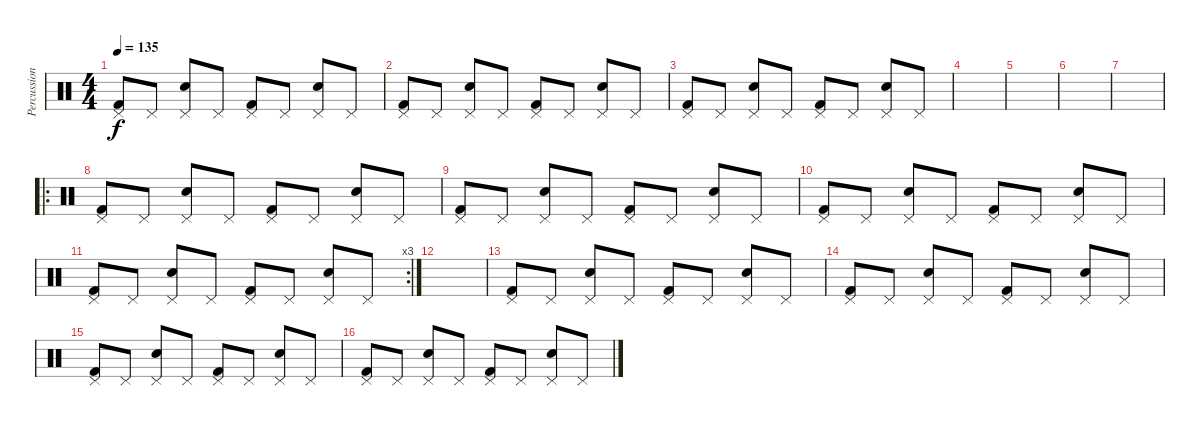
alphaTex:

\track ("Percussions" "Percussion") {instrument percussion}
\staff {score}
\articulation defaults
\ts (4 4)
\tempo 135
\clef neutral
\ks c
("Pedal Hi-Hat (hit)" "Kick (hit) 2").8{dy f} "Pedal Hi-Hat (hit)".8 ("Pedal Hi-Hat (hit)" "Electric Snare (hit)").8 "Pedal Hi-Hat (hit)".8 ("Pedal Hi-Hat (hit)" "Kick (hit) 2").8 "Pedal Hi-Hat (hit)".8 ("Pedal Hi-Hat (hit)" "Electric Snare (hit)").8 "Pedal Hi-Hat (hit)".8 |
("Pedal Hi-Hat (hit)" "Kick (hit) 2").8 "Pedal Hi-Hat (hit)".8 ("Pedal Hi-Hat (hit)" "Electric Snare (hit)").8 "Pedal Hi-Hat (hit)".8 ("Pedal Hi-Hat (hit)" "Kick (hit) 2").8 "Pedal Hi-Hat (hit)".8 ("Pedal Hi-Hat (hit)" "Electric Snare (hit)").8 "Pedal Hi-Hat (hit)".8 |
("Pedal Hi-Hat (hit)" "Kick (hit) 2").8 "Pedal Hi-Hat (hit)".8 ("Pedal Hi-Hat (hit)" "Electric Snare (hit)").8 "Pedal Hi-Hat (hit)".8 ("Pedal Hi-Hat (hit)" "Kick (hit) 2").8 "Pedal Hi-Hat (hit)".8 ("Pedal Hi-Hat (hit)" "Electric Snare (hit)").8 "Pedal Hi-Hat (hit)".8 |
|
|
|
|
\ro
("Pedal Hi-Hat (hit)" "Kick (hit) 2").8 "Pedal Hi-Hat (hit)".8 ("Pedal Hi-Hat (hit)" "Electric Snare (hit)").8 "Pedal Hi-Hat (hit)".8 ("Pedal Hi-Hat (hit)" "Kick (hit) 2").8 "Pedal Hi-Hat (hit)".8 ("Pedal Hi-Hat (hit)" "Electric Snare (hit)").8 "Pedal Hi-Hat (hit)".8 |
("Pedal Hi-Hat (hit)" "Kick (hit) 2").8 "Pedal Hi-Hat (hit)".8 ("Pedal Hi-Hat (hit)" "Electric Snare (hit)").8 "Pedal Hi-Hat (hit)".8 ("Pedal Hi-Hat (hit)" "Kick (hit) 2").8 "Pedal Hi-Hat (hit)".8 ("Pedal Hi-Hat (hit)" "Electric Snare (hit)").8 "Pedal Hi-Hat (hit)".8 |
("Pedal Hi-Hat (hit)" "Kick (hit) 2").8 "Pedal Hi-Hat (hit)".8 ("Pedal Hi-Hat (hit)" "Electric Snare (hit)").8 "Pedal Hi-Hat (hit)".8 ("Pedal Hi-Hat (hit)" "Kick (hit) 2").8 "Pedal Hi-Hat (hit)".8 ("Pedal Hi-Hat (hit)" "Electric Snare (hit)").8 "Pedal Hi-Hat (hit)".8 |
\rc 3
("Pedal Hi-Hat (hit)" "Kick (hit) 2").8 "Pedal Hi-Hat (hit)".8 ("Pedal Hi-Hat (hit)" "Electric Snare (hit)").8 "Pedal Hi-Hat (hit)".8 ("Pedal Hi-Hat (hit)" "Kick (hit) 2").8 "Pedal Hi-Hat (hit)".8 ("Pedal Hi-Hat (hit)" "Electric Snare (hit)").8 "Pedal Hi-Hat (hit)".8 |
|
("Pedal Hi-Hat (hit)" "Kick (hit) 2").8 "Pedal Hi-Hat (hit)".8 ("Pedal Hi-Hat (hit)" "Electric Snare (hit)").8 "Pedal Hi-Hat (hit)".8 ("Pedal Hi-Hat (hit)" "Kick (hit) 2").8 "Pedal Hi-Hat (hit)".8 ("Pedal Hi-Hat (hit)" "Electric Snare (hit)").8 "Pedal Hi-Hat (hit)".8 |
("Pedal Hi-Hat (hit)" "Kick (hit) 2").8 "Pedal Hi-Hat (hit)".8 ("Pedal Hi-Hat (hit)" "Electric Snare (hit)").8 "Pedal Hi-Hat (hit)".8 ("Pedal Hi-Hat (hit)" "Kick (hit) 2").8 "Pedal Hi-Hat (hit)".8 ("Pedal Hi-Hat (hit)" "Electric Snare (hit)").8 "Pedal Hi-Hat (hit)".8 |
("Pedal Hi-Hat (hit)" "Kick (hit) 2").8 "Pedal Hi-Hat (hit)".8 ("Pedal Hi-Hat (hit)" "Electric Snare (hit)").8 "Pedal Hi-Hat (hit)".8 ("Pedal Hi-Hat (hit)" "Kick (hit) 2").8 "Pedal Hi-Hat (hit)".8 ("Pedal Hi-Hat (hit)" "Electric Snare (hit)").8 "Pedal Hi-Hat (hit)".8 |
("Pedal Hi-Hat (hit)" "Kick (hit) 2").8 "Pedal Hi-Hat (hit)".8 ("Pedal Hi-Hat (hit)" "Electric Snare (hit)").8 "Pedal Hi-Hat (hit)".8 ("Pedal Hi-Hat (hit)" "Kick (hit) 2").8 "Pedal Hi-Hat (hit)".8 ("Pedal Hi-Hat (hit)" "Electric Snare (hit)").8 "Pedal Hi-Hat (hit)".8
